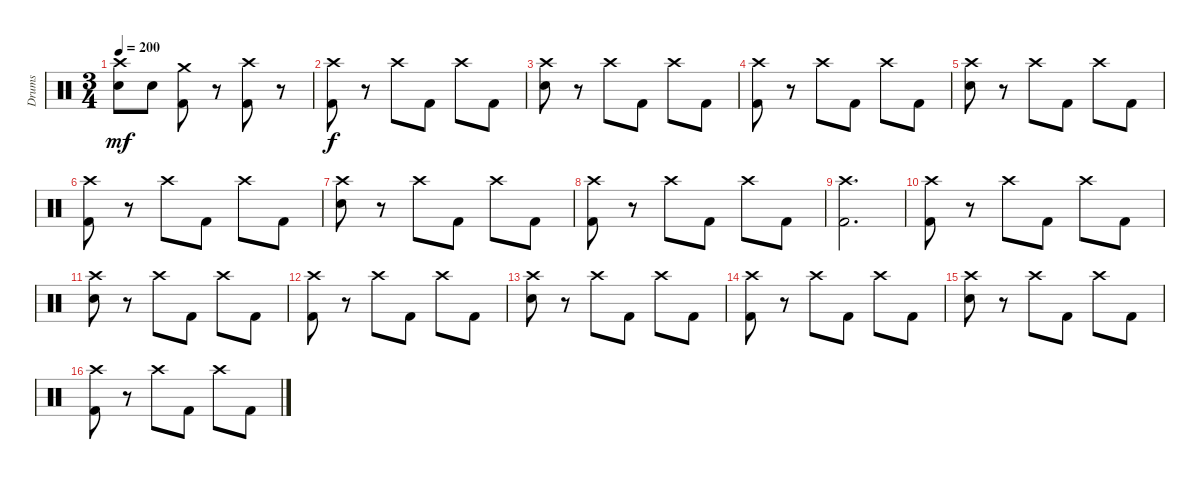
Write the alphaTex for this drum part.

\track ("Drums" "Drums") {instrument percussion}
\staff {score}
\articulation defaults
\ts (3 4)
\tempo 200
\clef neutral
\ks c
("Crash high (hit)" "Electric Snare (hit)").8{dy mf} "Electric Snare (hit)".8 ("Crash medium (hit)" "Kick (hit) 2").8 r.8 ("Crash high (hit)" "Kick (hit) 2").8 r.8 |
("Crash high (hit)" "Kick (hit) 2").8{dy f} r.8 "Crash high (hit)".8 "Kick (hit) 2".8 "Crash high (hit)".8 "Kick (hit) 2".8 |
("Crash high (hit)" "Electric Snare (hit)").8 r.8 "Crash high (hit)".8 "Kick (hit) 2".8 "Crash high (hit)".8 "Kick (hit) 2".8 |
("Crash high (hit)" "Kick (hit) 2").8 r.8 "Crash high (hit)".8 "Kick (hit) 2".8 "Crash high (hit)".8 "Kick (hit) 2".8 |
("Crash high (hit)" "Electric Snare (hit)").8 r.8 "Crash high (hit)".8 "Kick (hit) 2".8 "Crash high (hit)".8 "Kick (hit) 2".8 |
("Crash high (hit)" "Kick (hit) 2").8 r.8 "Crash high (hit)".8 "Kick (hit) 2".8 "Crash high (hit)".8 "Kick (hit) 2".8 |
("Crash high (hit)" "Electric Snare (hit)").8 r.8 "Crash high (hit)".8 "Kick (hit) 2".8 "Crash high (hit)".8 "Kick (hit) 2".8 |
("Crash high (hit)" "Kick (hit) 2").8 r.8 "Crash high (hit)".8 "Kick (hit) 2".8 "Crash high (hit)".8 "Kick (hit) 2".8 |
("Crash high (hit)" "Kick (hit) 2").2{d} |
("Crash high (hit)" "Kick (hit) 2").8 r.8 "Crash high (hit)".8 "Kick (hit) 2".8 "Crash high (hit)".8 "Kick (hit) 2".8 |
("Crash high (hit)" "Electric Snare (hit)").8 r.8 "Crash high (hit)".8 "Kick (hit) 2".8 "Crash high (hit)".8 "Kick (hit) 2".8 |
("Crash high (hit)" "Kick (hit) 2").8 r.8 "Crash high (hit)".8 "Kick (hit) 2".8 "Crash high (hit)".8 "Kick (hit) 2".8 |
("Crash high (hit)" "Electric Snare (hit)").8 r.8 "Crash high (hit)".8 "Kick (hit) 2".8 "Crash high (hit)".8 "Kick (hit) 2".8 |
("Crash high (hit)" "Kick (hit) 2").8 r.8 "Crash high (hit)".8 "Kick (hit) 2".8 "Crash high (hit)".8 "Kick (hit) 2".8 |
("Crash high (hit)" "Electric Snare (hit)").8 r.8 "Crash high (hit)".8 "Kick (hit) 2".8 "Crash high (hit)".8 "Kick (hit) 2".8 |
("Crash high (hit)" "Kick (hit) 2").8 r.8 "Crash high (hit)".8 "Kick (hit) 2".8 "Crash high (hit)".8 "Kick (hit) 2".8
